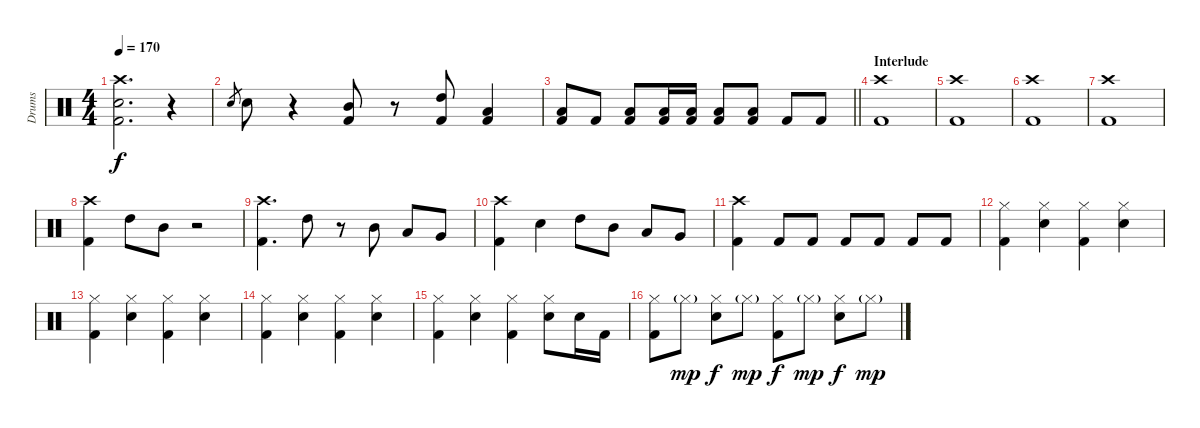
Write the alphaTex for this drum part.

\track ("Drums" "Drums") {instrument percussion}
\staff {score}
\articulation defaults
\ts (4 4)
\tempo 170
\clef neutral
\ks c
("Crash high (hit)" "Electric Snare (hit)" "Kick (hit) 2").2{d dy f} r.4 |
"Electric Snare (hit)".8{gr} "Electric Snare (hit)".8 r.4 ("Mid Tom (hit)" "Kick (hit) 2").8 r.8 ("High Tom (hit)" "Kick (hit) 2").8 ("Low Tom (hit)" "Kick (hit) 2").4 |
\barLineRight lightlight
("Low Tom (hit)" "Kick (hit) 2").8 "Kick (hit) 2".8 ("Low Tom (hit)" "Kick (hit) 2").8 ("Low Tom (hit)" "Kick (hit) 2").16 ("Low Tom (hit)" "Kick (hit) 2").16 ("Low Tom (hit)" "Kick (hit) 2").8 ("Low Tom (hit)" "Kick (hit) 2").8 "Kick (hit) 2".8 "Kick (hit) 2".8 |
\section ("" "Interlude")
("Crash high (hit)" "Kick (hit) 2").1 |
("Crash high (hit)" "Kick (hit) 2").1 |
("Crash high (hit)" "Kick (hit) 2").1 |
("Crash high (hit)" "Kick (hit) 2").1 |
("Crash high (hit)" "Kick (hit) 2").4 "High Tom (hit)".8 "Mid Tom (hit)".8 r.2 |
("Crash high (hit)" "Kick (hit) 2").4{d} "High Tom (hit)".8 r.8 "Mid Tom (hit)".8 "Low Tom (hit)".8 "Very Low Tom (hit)".8 |
("Crash high (hit)" "Kick (hit) 2").4 "Electric Snare (hit)".4 "High Tom (hit)".8 "Mid Tom (hit)".8 "Low Tom (hit)".8 "Very Low Tom (hit)".8 |
("Crash high (hit)" "Kick (hit) 2").4 "Kick (hit) 2".8 "Kick (hit) 2".8 "Kick (hit) 2".8 "Kick (hit) 2".8 "Kick (hit) 2".8 "Kick (hit) 2".8 |
("Hi-Hat (closed)" "Kick (hit) 2").4{volume 10} ("Hi-Hat (closed)" "Electric Snare (hit)").4 ("Hi-Hat (closed)" "Kick (hit) 2").4 ("Hi-Hat (closed)" "Electric Snare (hit)").4 |
("Hi-Hat (closed)" "Kick (hit) 2").4 ("Hi-Hat (closed)" "Electric Snare (hit)").4 ("Hi-Hat (closed)" "Kick (hit) 2").4 ("Hi-Hat (closed)" "Electric Snare (hit)").4 |
("Hi-Hat (closed)" "Kick (hit) 2").4 ("Hi-Hat (closed)" "Electric Snare (hit)").4 ("Hi-Hat (closed)" "Kick (hit) 2").4 ("Hi-Hat (closed)" "Electric Snare (hit)").4 |
("Hi-Hat (closed)" "Kick (hit) 2").4 ("Hi-Hat (closed)" "Electric Snare (hit)").4 ("Hi-Hat (closed)" "Kick (hit) 2").4 ("Hi-Hat (closed)" "Electric Snare (hit)").8 "Electric Snare (hit)".16 "Kick (hit) 2".16 |
("Hi-Hat (closed)" "Kick (hit) 2").8 "Hi-Hat (closed)"{g}.8{dy mp} ("Hi-Hat (closed)" "Electric Snare (hit)").8{dy f} "Hi-Hat (closed)"{g}.8{dy mp} ("Hi-Hat (closed)" "Kick (hit) 2").8{dy f} "Hi-Hat (closed)"{g}.8{dy mp} ("Hi-Hat (closed)" "Electric Snare (hit)").8{dy f} "Hi-Hat (closed)"{g}.8{dy mp}
